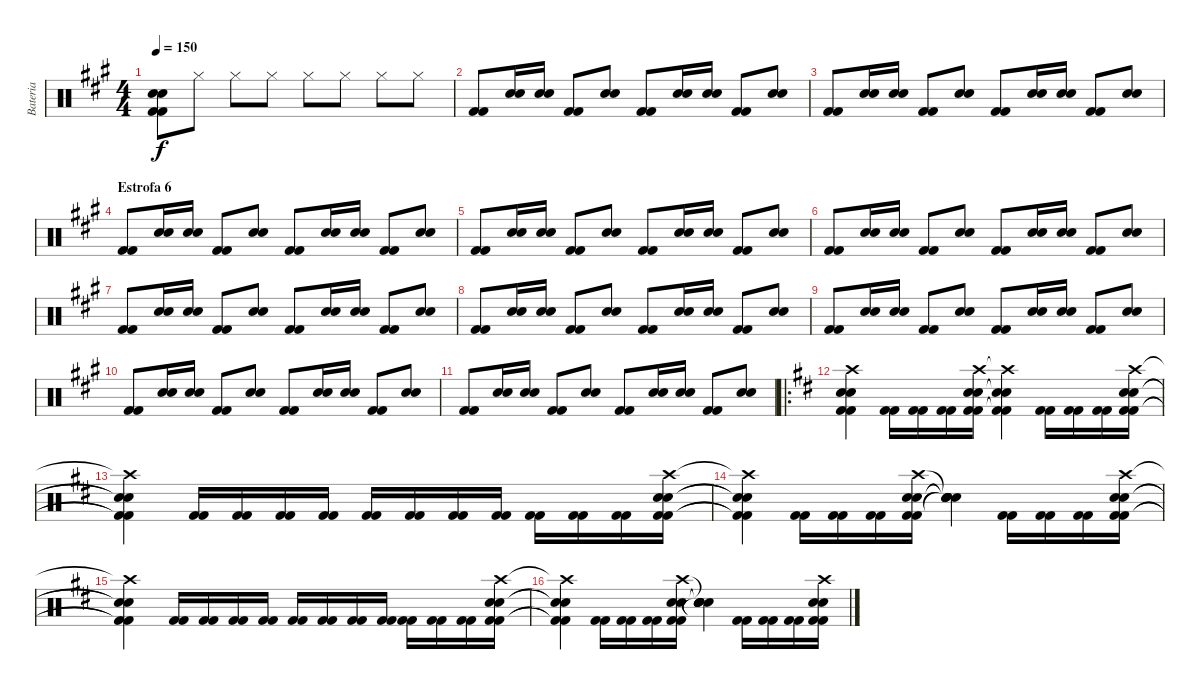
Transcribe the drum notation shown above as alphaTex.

\track ("Bateria" "Bateria") {instrument percussion}
\staff {score}
\articulation defaults
\ts (4 4)
\tempo 150
\clef neutral
\ks a
("Electric Snare (hit)" "Snare (hit) 2" "Kick (hit) 2" "Kick (hit) 2").8{dy f} "Hi-Hat (closed)".8 "Hi-Hat (closed)".8 "Hi-Hat (closed)".8 "Hi-Hat (closed)".8 "Hi-Hat (closed)".8 "Hi-Hat (closed)".8 "Hi-Hat (closed)".8 |
("Kick (hit) 2" "Kick (hit) 2").8 ("Electric Snare (hit)" "Snare (hit) 2").16 ("Electric Snare (hit)" "Snare (hit) 2").16 ("Kick (hit) 2" "Kick (hit) 2").8 ("Electric Snare (hit)" "Snare (hit) 2").8 ("Kick (hit) 2" "Kick (hit) 2").8 ("Electric Snare (hit)" "Snare (hit) 2").16 ("Electric Snare (hit)" "Snare (hit) 2").16 ("Kick (hit) 2" "Kick (hit) 2").8 ("Electric Snare (hit)" "Snare (hit) 2").8 |
("Kick (hit) 2" "Kick (hit) 2").8 ("Electric Snare (hit)" "Snare (hit) 2").16 ("Electric Snare (hit)" "Snare (hit) 2").16 ("Kick (hit) 2" "Kick (hit) 2").8 ("Electric Snare (hit)" "Snare (hit) 2").8 ("Kick (hit) 2" "Kick (hit) 2").8 ("Electric Snare (hit)" "Snare (hit) 2").16 ("Electric Snare (hit)" "Snare (hit) 2").16 ("Kick (hit) 2" "Kick (hit) 2").8 ("Electric Snare (hit)" "Snare (hit) 2").8 |
\section ("" "Estrofa 6")
("Kick (hit) 2" "Kick (hit) 2").8 ("Electric Snare (hit)" "Snare (hit) 2").16 ("Electric Snare (hit)" "Snare (hit) 2").16 ("Kick (hit) 2" "Kick (hit) 2").8 ("Electric Snare (hit)" "Snare (hit) 2").8 ("Kick (hit) 2" "Kick (hit) 2").8 ("Electric Snare (hit)" "Snare (hit) 2").16 ("Electric Snare (hit)" "Snare (hit) 2").16 ("Kick (hit) 2" "Kick (hit) 2").8 ("Electric Snare (hit)" "Snare (hit) 2").8 |
("Kick (hit) 2" "Kick (hit) 2").8 ("Electric Snare (hit)" "Snare (hit) 2").16 ("Electric Snare (hit)" "Snare (hit) 2").16 ("Kick (hit) 2" "Kick (hit) 2").8 ("Electric Snare (hit)" "Snare (hit) 2").8 ("Kick (hit) 2" "Kick (hit) 2").8 ("Electric Snare (hit)" "Snare (hit) 2").16 ("Electric Snare (hit)" "Snare (hit) 2").16 ("Kick (hit) 2" "Kick (hit) 2").8 ("Electric Snare (hit)" "Snare (hit) 2").8 |
("Kick (hit) 2" "Kick (hit) 2").8 ("Electric Snare (hit)" "Snare (hit) 2").16 ("Electric Snare (hit)" "Snare (hit) 2").16 ("Kick (hit) 2" "Kick (hit) 2").8 ("Electric Snare (hit)" "Snare (hit) 2").8 ("Kick (hit) 2" "Kick (hit) 2").8 ("Electric Snare (hit)" "Snare (hit) 2").16 ("Electric Snare (hit)" "Snare (hit) 2").16 ("Kick (hit) 2" "Kick (hit) 2").8 ("Electric Snare (hit)" "Snare (hit) 2").8 |
("Kick (hit) 2" "Kick (hit) 2").8 ("Electric Snare (hit)" "Snare (hit) 2").16 ("Electric Snare (hit)" "Snare (hit) 2").16 ("Kick (hit) 2" "Kick (hit) 2").8 ("Electric Snare (hit)" "Snare (hit) 2").8 ("Kick (hit) 2" "Kick (hit) 2").8 ("Electric Snare (hit)" "Snare (hit) 2").16 ("Electric Snare (hit)" "Snare (hit) 2").16 ("Kick (hit) 2" "Kick (hit) 2").8 ("Electric Snare (hit)" "Snare (hit) 2").8 |
("Kick (hit) 2" "Kick (hit) 2").8 ("Electric Snare (hit)" "Snare (hit) 2").16 ("Electric Snare (hit)" "Snare (hit) 2").16 ("Kick (hit) 2" "Kick (hit) 2").8 ("Electric Snare (hit)" "Snare (hit) 2").8 ("Kick (hit) 2" "Kick (hit) 2").8 ("Electric Snare (hit)" "Snare (hit) 2").16 ("Electric Snare (hit)" "Snare (hit) 2").16 ("Kick (hit) 2" "Kick (hit) 2").8 ("Electric Snare (hit)" "Snare (hit) 2").8 |
("Kick (hit) 2" "Kick (hit) 2").8 ("Electric Snare (hit)" "Snare (hit) 2").16 ("Electric Snare (hit)" "Snare (hit) 2").16 ("Kick (hit) 2" "Kick (hit) 2").8 ("Electric Snare (hit)" "Snare (hit) 2").8 ("Kick (hit) 2" "Kick (hit) 2").8 ("Electric Snare (hit)" "Snare (hit) 2").16 ("Electric Snare (hit)" "Snare (hit) 2").16 ("Kick (hit) 2" "Kick (hit) 2").8 ("Electric Snare (hit)" "Snare (hit) 2").8 |
("Kick (hit) 2" "Kick (hit) 2").8 ("Electric Snare (hit)" "Snare (hit) 2").16 ("Electric Snare (hit)" "Snare (hit) 2").16 ("Kick (hit) 2" "Kick (hit) 2").8 ("Electric Snare (hit)" "Snare (hit) 2").8 ("Kick (hit) 2" "Kick (hit) 2").8 ("Electric Snare (hit)" "Snare (hit) 2").16 ("Electric Snare (hit)" "Snare (hit) 2").16 ("Kick (hit) 2" "Kick (hit) 2").8 ("Electric Snare (hit)" "Snare (hit) 2").8 |
("Kick (hit) 2" "Kick (hit) 2").8 ("Electric Snare (hit)" "Snare (hit) 2").16 ("Electric Snare (hit)" "Snare (hit) 2").16 ("Kick (hit) 2" "Kick (hit) 2").8 ("Electric Snare (hit)" "Snare (hit) 2").8 ("Kick (hit) 2" "Kick (hit) 2").8 ("Electric Snare (hit)" "Snare (hit) 2").16 ("Electric Snare (hit)" "Snare (hit) 2").16 ("Kick (hit) 2" "Kick (hit) 2").8 ("Electric Snare (hit)" "Snare (hit) 2").8 |
\ro
\ks d
("Crash high (hit)" "Electric Snare (hit)" "Snare (hit) 2" "Kick (hit) 2" "Kick (hit) 2").4 ("Kick (hit) 2" "Kick (hit) 2").16 ("Kick (hit) 2" "Kick (hit) 2").16 ("Kick (hit) 2" "Kick (hit) 2").16 ("Crash high (hit)" "Electric Snare (hit)" "Snare (hit) 2" "Kick (hit) 2" "Kick (hit) 2").16 ("Crash high (hit)"{t} "Electric Snare (hit)"{t} "Snare (hit) 2"{t} "Kick (hit) 2"{t} "Kick (hit) 2"{t}).4 ("Kick (hit) 2" "Kick (hit) 2").16 ("Kick (hit) 2" "Kick (hit) 2").16 ("Kick (hit) 2" "Kick (hit) 2").16 ("Crash high (hit)" "Electric Snare (hit)" "Snare (hit) 2" "Kick (hit) 2" "Kick (hit) 2").16 |
("Crash high (hit)"{t} "Electric Snare (hit)"{t} "Snare (hit) 2"{t} "Kick (hit) 2"{t} "Kick (hit) 2"{t}).4 ("Kick (hit) 2" "Kick (hit) 2").16 ("Kick (hit) 2" "Kick (hit) 2").16 ("Kick (hit) 2" "Kick (hit) 2").16 ("Kick (hit) 2" "Kick (hit) 2").16 ("Kick (hit) 2" "Kick (hit) 2").16 ("Kick (hit) 2" "Kick (hit) 2").16 ("Kick (hit) 2" "Kick (hit) 2").16 ("Kick (hit) 2" "Kick (hit) 2").16 ("Kick (hit) 2" "Kick (hit) 2").16 ("Kick (hit) 2" "Kick (hit) 2").16 ("Kick (hit) 2" "Kick (hit) 2").16 ("Crash high (hit)" "Electric Snare (hit)" "Snare (hit) 2" "Kick (hit) 2" "Kick (hit) 2").16 |
("Crash high (hit)"{t} "Electric Snare (hit)"{t} "Snare (hit) 2"{t} "Kick (hit) 2"{t} "Kick (hit) 2"{t}).4 ("Kick (hit) 2" "Kick (hit) 2").16 ("Kick (hit) 2" "Kick (hit) 2").16 ("Kick (hit) 2" "Kick (hit) 2").16 ("Crash high (hit)" "Electric Snare (hit)" "Snare (hit) 2" "Kick (hit) 2" "Kick (hit) 2").16 ("Snare (hit)"{t} "Snare (hit)"{t} "Snare (hit)"{t} "Snare (hit)"{t} "Snare (hit)"{t}).4 ("Kick (hit) 2" "Kick (hit) 2").16 ("Kick (hit) 2" "Kick (hit) 2").16 ("Kick (hit) 2" "Kick (hit) 2").16 ("Crash high (hit)" "Electric Snare (hit)" "Snare (hit) 2" "Kick (hit) 2" "Kick (hit) 2").16 |
("Crash high (hit)"{t} "Electric Snare (hit)"{t} "Snare (hit) 2"{t} "Kick (hit) 2"{t} "Kick (hit) 2"{t}).4 ("Kick (hit) 2" "Kick (hit) 2").16 ("Kick (hit) 2" "Kick (hit) 2").16 ("Kick (hit) 2" "Kick (hit) 2").16 ("Kick (hit) 2" "Kick (hit) 2").16 ("Kick (hit) 2" "Kick (hit) 2").16 ("Kick (hit) 2" "Kick (hit) 2").16 ("Kick (hit) 2" "Kick (hit) 2").16 ("Kick (hit) 2" "Kick (hit) 2").16 ("Kick (hit) 2" "Kick (hit) 2").16 ("Kick (hit) 2" "Kick (hit) 2").16 ("Kick (hit) 2" "Kick (hit) 2").16 ("Crash high (hit)" "Electric Snare (hit)" "Snare (hit) 2" "Kick (hit) 2" "Kick (hit) 2").16 |
("Crash high (hit)"{t} "Electric Snare (hit)"{t} "Snare (hit) 2"{t} "Kick (hit) 2"{t} "Kick (hit) 2"{t}).4 ("Kick (hit) 2" "Kick (hit) 2").16 ("Kick (hit) 2" "Kick (hit) 2").16 ("Kick (hit) 2" "Kick (hit) 2").16 ("Crash high (hit)" "Electric Snare (hit)" "Snare (hit) 2" "Kick (hit) 2" "Kick (hit) 2").16 ("Snare (hit)"{t} "Snare (hit)"{t} "Snare (hit)"{t} "Snare (hit)"{t} "Snare (hit)"{t}).4 ("Kick (hit) 2" "Kick (hit) 2").16 ("Kick (hit) 2" "Kick (hit) 2").16 ("Kick (hit) 2" "Kick (hit) 2").16 ("Crash high (hit)" "Electric Snare (hit)" "Snare (hit) 2" "Kick (hit) 2" "Kick (hit) 2").16
